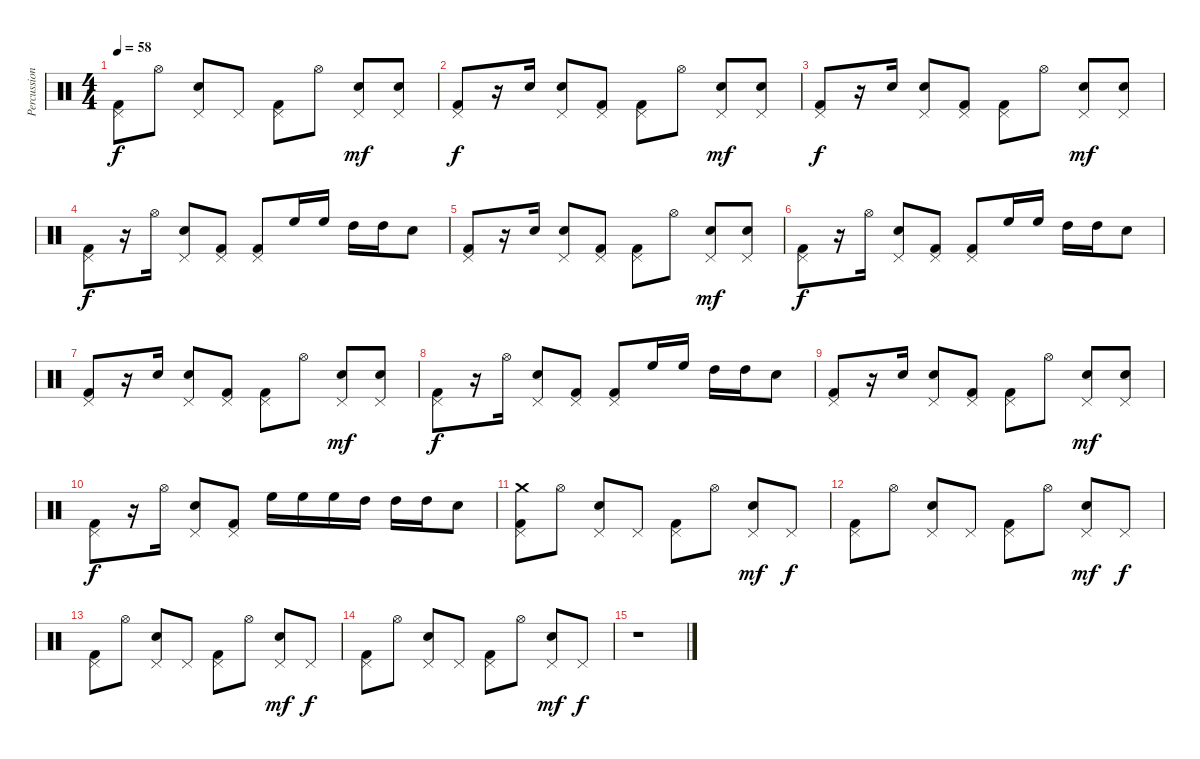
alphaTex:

\track ("Percussions" "Percussion") {instrument percussion}
\staff {score}
\articulation defaults
\ts (4 4)
\tempo 58
\clef neutral
\ks c
("Pedal Hi-Hat (hit)" "Kick (hit) 2").8{dy f} "Hi-Hat (open)".8 ("Pedal Hi-Hat (hit)" "Electric Snare (hit)").8 "Pedal Hi-Hat (hit)".8 ("Pedal Hi-Hat (hit)" "Kick (hit) 2").8 "Hi-Hat (open)".8 ("Pedal Hi-Hat (hit)" "Electric Snare (hit)").8{dy mf} ("Pedal Hi-Hat (hit)" "Electric Snare (hit)").8 |
("Pedal Hi-Hat (hit)" "Kick (hit) 2").8{dy f} r.16 "Electric Snare (hit)".16 ("Pedal Hi-Hat (hit)" "Electric Snare (hit)").8 ("Pedal Hi-Hat (hit)" "Kick (hit) 2").8 ("Pedal Hi-Hat (hit)" "Kick (hit) 2").8 "Hi-Hat (open)".8 ("Pedal Hi-Hat (hit)" "Electric Snare (hit)").8{dy mf} ("Pedal Hi-Hat (hit)" "Electric Snare (hit)").8 |
("Pedal Hi-Hat (hit)" "Kick (hit) 2").8{dy f} r.16 "Electric Snare (hit)".16 ("Pedal Hi-Hat (hit)" "Electric Snare (hit)").8 ("Pedal Hi-Hat (hit)" "Kick (hit) 2").8 ("Pedal Hi-Hat (hit)" "Kick (hit) 2").8 "Hi-Hat (open)".8 ("Pedal Hi-Hat (hit)" "Electric Snare (hit)").8{dy mf} ("Pedal Hi-Hat (hit)" "Electric Snare (hit)").8 |
("Pedal Hi-Hat (hit)" "Kick (hit) 2").8{dy f} r.16 "Hi-Hat (open)".16 ("Pedal Hi-Hat (hit)" "Electric Snare (hit)").8 ("Pedal Hi-Hat (hit)" "Kick (hit) 2").8 ("Pedal Hi-Hat (hit)" "Kick (hit) 2").8 "High Floor Tom (hit)".16 "High Floor Tom (hit)".16 "High Tom (hit)".16 "High Tom (hit)".16 "Electric Snare (hit)".8 |
("Pedal Hi-Hat (hit)" "Kick (hit) 2").8 r.16 "Electric Snare (hit)".16 ("Pedal Hi-Hat (hit)" "Electric Snare (hit)").8 ("Pedal Hi-Hat (hit)" "Kick (hit) 2").8 ("Pedal Hi-Hat (hit)" "Kick (hit) 2").8 "Hi-Hat (open)".8 ("Pedal Hi-Hat (hit)" "Electric Snare (hit)").8{dy mf} ("Pedal Hi-Hat (hit)" "Electric Snare (hit)").8 |
("Pedal Hi-Hat (hit)" "Kick (hit) 2").8{dy f} r.16 "Hi-Hat (open)".16 ("Pedal Hi-Hat (hit)" "Electric Snare (hit)").8 ("Pedal Hi-Hat (hit)" "Kick (hit) 2").8 ("Pedal Hi-Hat (hit)" "Kick (hit) 2").8 "High Floor Tom (hit)".16 "High Floor Tom (hit)".16 "High Tom (hit)".16 "High Tom (hit)".16 "Electric Snare (hit)".8 |
("Pedal Hi-Hat (hit)" "Kick (hit) 2").8 r.16 "Electric Snare (hit)".16 ("Pedal Hi-Hat (hit)" "Electric Snare (hit)").8 ("Pedal Hi-Hat (hit)" "Kick (hit) 2").8 ("Pedal Hi-Hat (hit)" "Kick (hit) 2").8 "Hi-Hat (open)".8 ("Pedal Hi-Hat (hit)" "Electric Snare (hit)").8{dy mf} ("Pedal Hi-Hat (hit)" "Electric Snare (hit)").8 |
("Pedal Hi-Hat (hit)" "Kick (hit) 2").8{dy f} r.16 "Hi-Hat (open)".16 ("Pedal Hi-Hat (hit)" "Electric Snare (hit)").8 ("Pedal Hi-Hat (hit)" "Kick (hit) 2").8 ("Pedal Hi-Hat (hit)" "Kick (hit) 2").8 "High Floor Tom (hit)".16 "High Floor Tom (hit)".16 "High Tom (hit)".16 "High Tom (hit)".16 "Electric Snare (hit)".8 |
("Pedal Hi-Hat (hit)" "Kick (hit) 2").8 r.16 "Electric Snare (hit)".16 ("Pedal Hi-Hat (hit)" "Electric Snare (hit)").8 ("Pedal Hi-Hat (hit)" "Kick (hit) 2").8 ("Pedal Hi-Hat (hit)" "Kick (hit) 2").8 "Hi-Hat (open)".8 ("Pedal Hi-Hat (hit)" "Electric Snare (hit)").8{dy mf} ("Pedal Hi-Hat (hit)" "Electric Snare (hit)").8 |
("Pedal Hi-Hat (hit)" "Kick (hit) 2").8{dy f} r.16 "Hi-Hat (open)".16 ("Pedal Hi-Hat (hit)" "Electric Snare (hit)").8 ("Pedal Hi-Hat (hit)" "Kick (hit) 2").8 "High Floor Tom (hit)".16 "High Floor Tom (hit)".16 "High Floor Tom (hit)".16 "High Tom (hit)".16 "High Tom (hit)".16 "High Tom (hit)".16 "Electric Snare (hit)".8 |
("Pedal Hi-Hat (hit)" "Kick (hit) 2" "Crash medium (hit)").8 "Hi-Hat (open)".8 ("Pedal Hi-Hat (hit)" "Electric Snare (hit)").8 "Pedal Hi-Hat (hit)".8 ("Pedal Hi-Hat (hit)" "Kick (hit) 2").8 "Hi-Hat (open)".8 ("Pedal Hi-Hat (hit)" "Electric Snare (hit)").8{dy mf} "Pedal Hi-Hat (hit)".8{dy f} |
("Pedal Hi-Hat (hit)" "Kick (hit) 2").8 "Hi-Hat (open)".8 ("Pedal Hi-Hat (hit)" "Electric Snare (hit)").8 "Pedal Hi-Hat (hit)".8 ("Pedal Hi-Hat (hit)" "Kick (hit) 2").8 "Hi-Hat (open)".8 ("Pedal Hi-Hat (hit)" "Electric Snare (hit)").8{dy mf} "Pedal Hi-Hat (hit)".8{dy f} |
("Pedal Hi-Hat (hit)" "Kick (hit) 2").8 "Hi-Hat (open)".8 ("Pedal Hi-Hat (hit)" "Electric Snare (hit)").8 "Pedal Hi-Hat (hit)".8 ("Pedal Hi-Hat (hit)" "Kick (hit) 2").8 "Hi-Hat (open)".8 ("Pedal Hi-Hat (hit)" "Electric Snare (hit)").8{dy mf} "Pedal Hi-Hat (hit)".8{dy f} |
("Pedal Hi-Hat (hit)" "Kick (hit) 2").8 "Hi-Hat (open)".8 ("Pedal Hi-Hat (hit)" "Electric Snare (hit)").8 "Pedal Hi-Hat (hit)".8 ("Pedal Hi-Hat (hit)" "Kick (hit) 2").8 "Hi-Hat (open)".8 ("Pedal Hi-Hat (hit)" "Electric Snare (hit)").8{dy mf} "Pedal Hi-Hat (hit)".8{dy f} |
r.1
